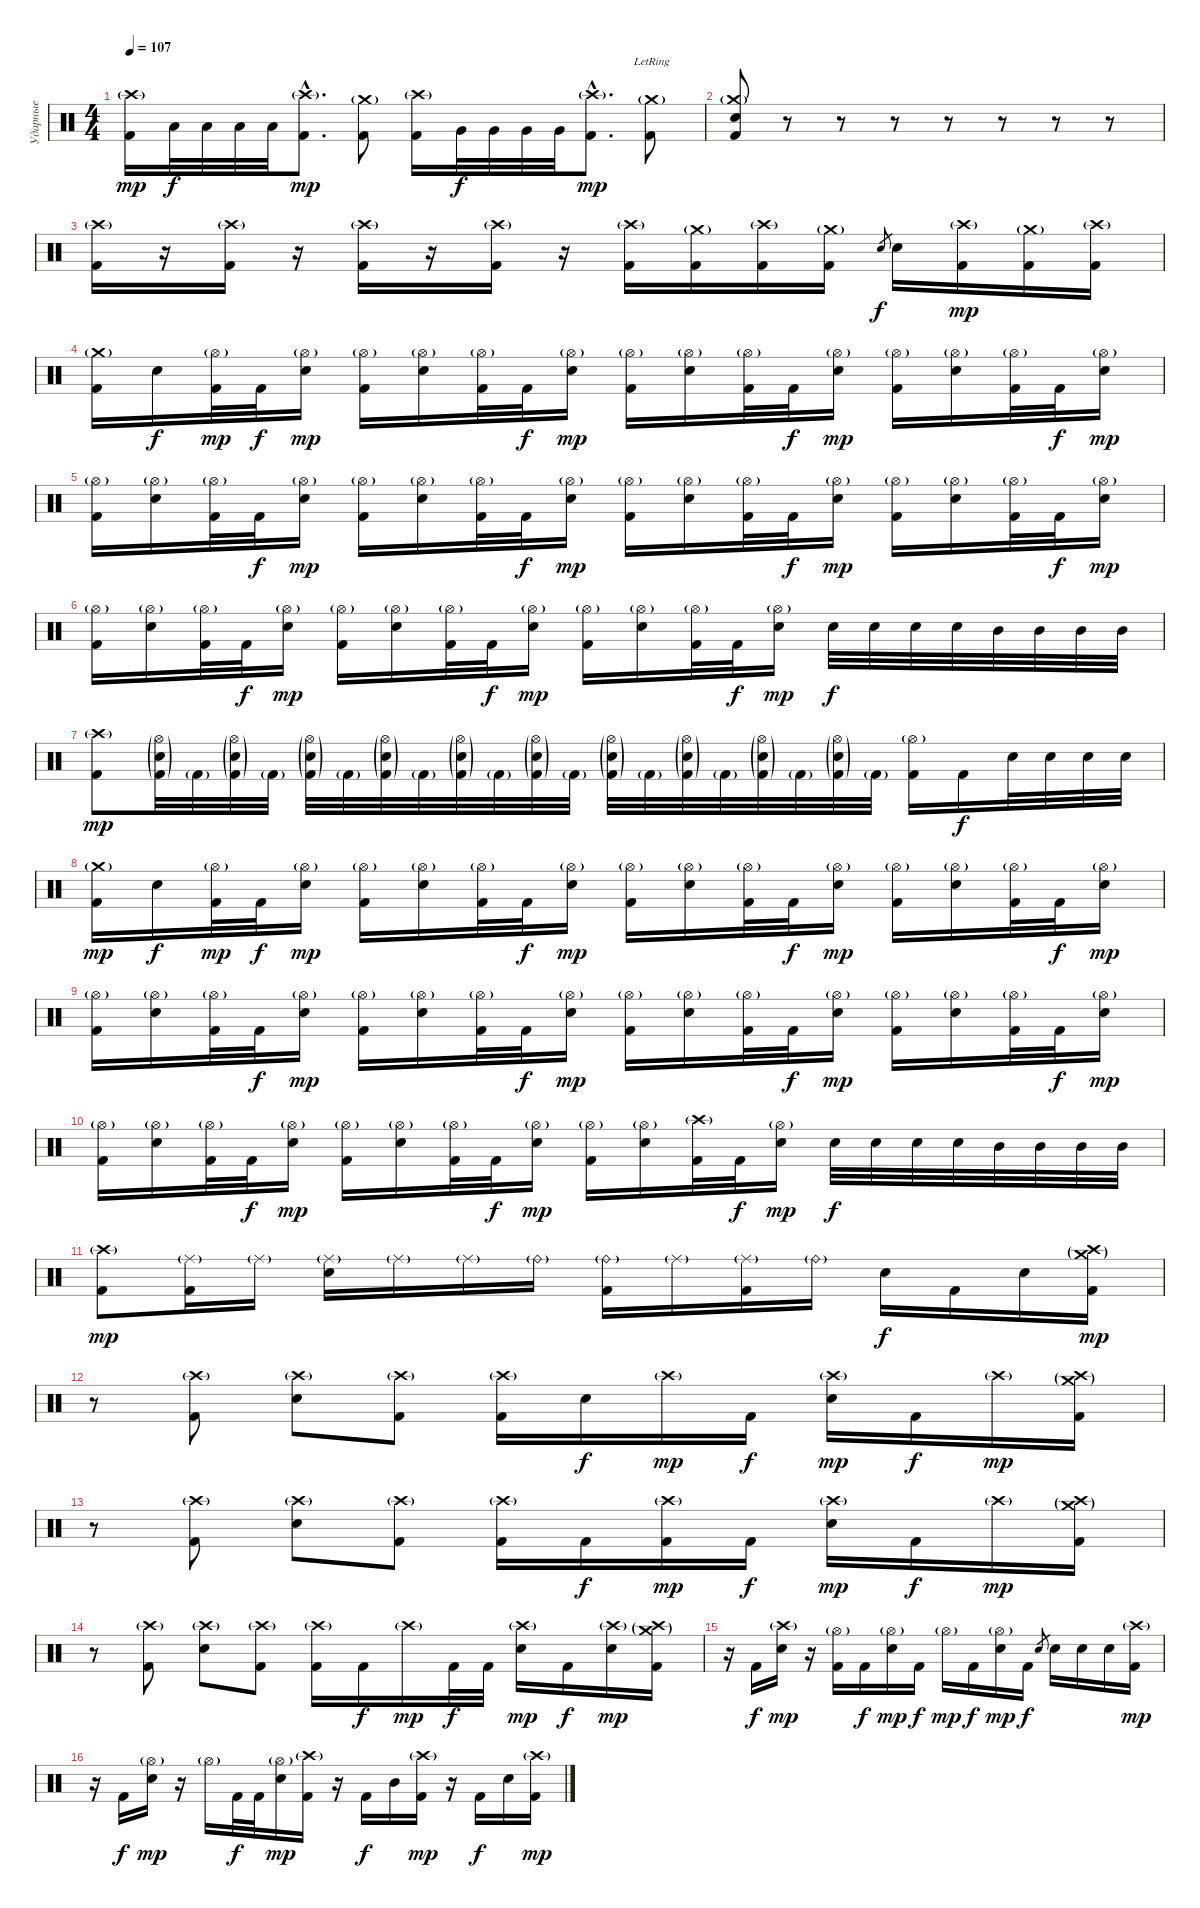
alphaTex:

\track ("Ударные" "Ударные") {instrument percussion}
\staff {score}
\articulation defaults
\ts (4 4)
\tempo 107
\clef neutral
\ks c
("Crash high (hit)"{g} "Kick (hit) 2").16{dy mp} "Low Tom (hit)".32{dy f} "Low Tom (hit)".32 "Low Tom (hit)".32 "Low Tom (hit)".32 ("Crash high (hit)"{g hac} "Kick (hit) 2"{hac}).8{d dy mp} ("Crash medium (hit)"{g} "Kick (hit) 2").8 ("Crash high (hit)"{g} "Kick (hit) 2").16 "Very Low Tom (hit)".32{dy f} "Very Low Tom (hit)".32 "Very Low Tom (hit)".32 "Very Low Tom (hit)".32 ("Crash high (hit)"{g hac} "Kick (hit) 2"{hac}).8{d dy mp} ("Crash medium (hit)"{g lr} "Kick (hit) 2").8 |
("Crash medium (hit)"{g} "Electric Snare (hit)" "Kick (hit) 2").8 r.8 r.8 r.8 r.8 r.8 r.8 r.8 |
("Crash high (hit)"{g} "Kick (hit) 2").16 r.16{volume 0} ("Crash high (hit)"{g} "Kick (hit) 2").16{volume 16} r.16{volume 0} ("Crash high (hit)"{g} "Kick (hit) 2").16{volume 16} r.16{volume 0} ("Crash high (hit)"{g} "Kick (hit) 2").16{volume 16} r.16 ("Crash high (hit)"{g} "Kick (hit) 2").16 ("Crash medium (hit)"{g} "Kick (hit) 2").16 ("Crash high (hit)"{g} "Kick (hit) 2").16 ("Crash medium (hit)"{g} "Kick (hit) 2").16 "Electric Snare (hit)".8{gr dy f} "Electric Snare (hit)".16 ("Crash high (hit)"{g} "Kick (hit) 2").16{dy mp} ("Crash medium (hit)"{g} "Kick (hit) 2").16 ("Crash high (hit)"{g} "Kick (hit) 2").16 |
("Crash medium (hit)"{g} "Kick (hit) 2").16 "Electric Snare (hit)".16{dy f} ("Hi-Hat (open)"{g} "Kick (hit) 2").32{dy mp} "Kick (hit) 2".32{dy f} ("Hi-Hat (open)"{g} "Electric Snare (hit)").16{dy mp} ("Hi-Hat (open)"{g} "Kick (hit) 2").16 ("Hi-Hat (open)"{g} "Electric Snare (hit)").16 ("Hi-Hat (open)"{g} "Kick (hit) 2").32 "Kick (hit) 2".32{dy f} ("Hi-Hat (open)"{g} "Electric Snare (hit)").16{dy mp} ("Hi-Hat (open)"{g} "Kick (hit) 2").16 ("Hi-Hat (open)"{g} "Electric Snare (hit)").16 ("Hi-Hat (open)"{g} "Kick (hit) 2").32 "Kick (hit) 2".32{dy f} ("Hi-Hat (open)"{g} "Electric Snare (hit)").16{dy mp} ("Hi-Hat (open)"{g} "Kick (hit) 2").16 ("Hi-Hat (open)"{g} "Electric Snare (hit)").16 ("Hi-Hat (open)"{g} "Kick (hit) 2").32 "Kick (hit) 2".32{dy f} ("Hi-Hat (open)"{g} "Electric Snare (hit)").16{dy mp} |
("Hi-Hat (open)"{g} "Kick (hit) 2").16 ("Hi-Hat (open)"{g} "Electric Snare (hit)").16 ("Hi-Hat (open)"{g} "Kick (hit) 2").32 "Kick (hit) 2".32{dy f} ("Hi-Hat (open)"{g} "Electric Snare (hit)").16{dy mp} ("Hi-Hat (open)"{g} "Kick (hit) 2").16 ("Hi-Hat (open)"{g} "Electric Snare (hit)").16 ("Hi-Hat (open)"{g} "Kick (hit) 2").32 "Kick (hit) 2".32{dy f} ("Hi-Hat (open)"{g} "Electric Snare (hit)").16{dy mp} ("Hi-Hat (open)"{g} "Kick (hit) 2").16 ("Hi-Hat (open)"{g} "Electric Snare (hit)").16 ("Hi-Hat (open)"{g} "Kick (hit) 2").32 "Kick (hit) 2".32{dy f} ("Hi-Hat (open)"{g} "Electric Snare (hit)").16{dy mp} ("Hi-Hat (open)"{g} "Kick (hit) 2").16 ("Hi-Hat (open)"{g} "Electric Snare (hit)").16 ("Hi-Hat (open)"{g} "Kick (hit) 2").32 "Kick (hit) 2".32{dy f} ("Hi-Hat (open)"{g} "Electric Snare (hit)").16{dy mp} |
("Hi-Hat (open)"{g} "Kick (hit) 2").16 ("Hi-Hat (open)"{g} "Electric Snare (hit)").16 ("Hi-Hat (open)"{g} "Kick (hit) 2").32 "Kick (hit) 2".32{dy f} ("Hi-Hat (open)"{g} "Electric Snare (hit)").16{dy mp} ("Hi-Hat (open)"{g} "Kick (hit) 2").16 ("Hi-Hat (open)"{g} "Electric Snare (hit)").16 ("Hi-Hat (open)"{g} "Kick (hit) 2").32 "Kick (hit) 2".32{dy f} ("Hi-Hat (open)"{g} "Electric Snare (hit)").16{dy mp} ("Hi-Hat (open)"{g} "Kick (hit) 2").16 ("Hi-Hat (open)"{g} "Electric Snare (hit)").16 ("Hi-Hat (open)"{g} "Kick (hit) 2").32 "Kick (hit) 2".32{dy f} ("Hi-Hat (open)"{g} "Electric Snare (hit)").16{dy mp} "Electric Snare (hit)".32{dy f} "Electric Snare (hit)".32 "Electric Snare (hit)".32 "Electric Snare (hit)".32 "Mid Tom (hit)".32 "Mid Tom (hit)".32 "Mid Tom (hit)".32 "Mid Tom (hit)".32 |
("Crash high (hit)"{g} "Kick (hit) 2").8{dy mp} ("Hi-Hat (open)"{g} "Electric Snare (hit)"{g} "Kick (hit) 2"{g}).32 "Kick (hit) 2"{g}.32 ("Hi-Hat (open)"{g} "Electric Snare (hit)"{g} "Kick (hit) 2"{g}).32 "Kick (hit) 2"{g}.32 ("Hi-Hat (open)"{g} "Electric Snare (hit)"{g} "Kick (hit) 2"{g}).32 "Kick (hit) 2"{g}.32 ("Hi-Hat (open)"{g} "Electric Snare (hit)"{g} "Kick (hit) 2"{g}).32 "Kick (hit) 2"{g}.32 ("Hi-Hat (open)"{g} "Electric Snare (hit)"{g} "Kick (hit) 2"{g}).32 "Kick (hit) 2"{g}.32 ("Hi-Hat (open)"{g} "Electric Snare (hit)"{g} "Kick (hit) 2"{g}).32 "Kick (hit) 2"{g}.32 ("Hi-Hat (open)"{g} "Electric Snare (hit)"{g} "Kick (hit) 2"{g}).32 "Kick (hit) 2"{g}.32 ("Hi-Hat (open)"{g} "Electric Snare (hit)"{g} "Kick (hit) 2"{g}).32 "Kick (hit) 2"{g}.32 ("Hi-Hat (open)"{g} "Electric Snare (hit)"{g} "Kick (hit) 2"{g}).32 "Kick (hit) 2"{g}.32 ("Hi-Hat (open)"{g} "Electric Snare (hit)"{g} "Kick (hit) 2"{g}).32 "Kick (hit) 2"{g}.32 ("Hi-Hat (open)"{g} "Kick (hit) 2").16 "Kick (hit) 2".16{dy f} "Electric Snare (hit)".32 "Electric Snare (hit)".32 "Electric Snare (hit)".32 "Electric Snare (hit)".32 |
("Crash medium (hit)"{g} "Kick (hit) 2").16{dy mp} "Electric Snare (hit)".16{dy f} ("Hi-Hat (open)"{g} "Kick (hit) 2").32{dy mp} "Kick (hit) 2".32{dy f} ("Hi-Hat (open)"{g} "Electric Snare (hit)").16{dy mp} ("Hi-Hat (open)"{g} "Kick (hit) 2").16 ("Hi-Hat (open)"{g} "Electric Snare (hit)").16 ("Hi-Hat (open)"{g} "Kick (hit) 2").32 "Kick (hit) 2".32{dy f} ("Hi-Hat (open)"{g} "Electric Snare (hit)").16{dy mp} ("Hi-Hat (open)"{g} "Kick (hit) 2").16 ("Hi-Hat (open)"{g} "Electric Snare (hit)").16 ("Hi-Hat (open)"{g} "Kick (hit) 2").32 "Kick (hit) 2".32{dy f} ("Hi-Hat (open)"{g} "Electric Snare (hit)").16{dy mp} ("Hi-Hat (open)"{g} "Kick (hit) 2").16 ("Hi-Hat (open)"{g} "Electric Snare (hit)").16 ("Hi-Hat (open)"{g} "Kick (hit) 2").32 "Kick (hit) 2".32{dy f} ("Hi-Hat (open)"{g} "Electric Snare (hit)").16{dy mp} |
("Hi-Hat (open)"{g} "Kick (hit) 2").16 ("Hi-Hat (open)"{g} "Electric Snare (hit)").16 ("Hi-Hat (open)"{g} "Kick (hit) 2").32 "Kick (hit) 2".32{dy f} ("Hi-Hat (open)"{g} "Electric Snare (hit)").16{dy mp} ("Hi-Hat (open)"{g} "Kick (hit) 2").16 ("Hi-Hat (open)"{g} "Electric Snare (hit)").16 ("Hi-Hat (open)"{g} "Kick (hit) 2").32 "Kick (hit) 2".32{dy f} ("Hi-Hat (open)"{g} "Electric Snare (hit)").16{dy mp} ("Hi-Hat (open)"{g} "Kick (hit) 2").16 ("Hi-Hat (open)"{g} "Electric Snare (hit)").16 ("Hi-Hat (open)"{g} "Kick (hit) 2").32 "Kick (hit) 2".32{dy f} ("Hi-Hat (open)"{g} "Electric Snare (hit)").16{dy mp} ("Hi-Hat (open)"{g} "Kick (hit) 2").16 ("Hi-Hat (open)"{g} "Electric Snare (hit)").16 ("Hi-Hat (open)"{g} "Kick (hit) 2").32 "Kick (hit) 2".32{dy f} ("Hi-Hat (open)"{g} "Electric Snare (hit)").16{dy mp} |
("Hi-Hat (open)"{g} "Kick (hit) 2").16 ("Hi-Hat (open)"{g} "Electric Snare (hit)").16 ("Hi-Hat (open)"{g} "Kick (hit) 2").32 "Kick (hit) 2".32{dy f} ("Hi-Hat (open)"{g} "Electric Snare (hit)").16{dy mp} ("Hi-Hat (open)"{g} "Kick (hit) 2").16 ("Hi-Hat (open)"{g} "Electric Snare (hit)").16 ("Hi-Hat (open)"{g} "Kick (hit) 2").32 "Kick (hit) 2".32{dy f} ("Hi-Hat (open)"{g} "Electric Snare (hit)").16{dy mp} ("Hi-Hat (open)"{g} "Kick (hit) 2").16 ("Hi-Hat (open)"{g} "Electric Snare (hit)").16 ("Crash high (hit)"{g} "Kick (hit) 2").32 "Kick (hit) 2".32{dy f} ("Hi-Hat (open)"{g} "Electric Snare (hit)").16{dy mp} "Electric Snare (hit)".32{dy f} "Electric Snare (hit)".32 "Electric Snare (hit)".32 "Electric Snare (hit)".32 "Mid Tom (hit)".32 "Mid Tom (hit)".32 "Mid Tom (hit)".32 "Mid Tom (hit)".32 |
("Crash high (hit)"{g} "Kick (hit) 2").8{dy mp} ("Ride (middle)"{g} "Kick (hit) 2").16 "Ride (middle)"{g}.16 ("Ride (middle)"{g} "Electric Snare (hit)").16 "Ride (middle)"{g}.16 "Ride (middle)"{g}.16 "Ride (bell)"{g}.16 ("Ride (bell)"{g} "Kick (hit) 2").16 "Ride (middle)"{g}.16 ("Ride (middle)"{g} "Kick (hit) 2").16 "Ride (bell)"{g}.16 "Electric Snare (hit)".16{dy f} "Kick (hit) 2".16 "Electric Snare (hit)".16 ("Crash high (hit)"{g} "Crash medium (hit)"{g} "Kick (hit) 2").16{dy mp} |
r.8 ("Crash high (hit)"{g} "Kick (hit) 2").8 ("Crash high (hit)"{g} "Electric Snare (hit)").8 ("Crash high (hit)"{g} "Kick (hit) 2").8 ("Crash high (hit)"{g} "Kick (hit) 2").16 "Electric Snare (hit)".16{dy f} "Crash high (hit)"{g}.16{dy mp} "Kick (hit) 2".16{dy f} ("Crash high (hit)"{g} "Electric Snare (hit)").16{dy mp} "Kick (hit) 2".16{dy f} "Crash high (hit)"{g}.16{dy mp} ("Crash high (hit)"{g} "Crash medium (hit)"{g} "Kick (hit) 2").16 |
r.8 ("Crash high (hit)"{g} "Kick (hit) 2").8 ("Crash high (hit)"{g} "Electric Snare (hit)").8 ("Crash high (hit)"{g} "Kick (hit) 2").8 ("Crash high (hit)"{g} "Kick (hit) 2").16 "Kick (hit) 2".16{dy f} ("Crash high (hit)"{g} "Kick (hit) 2").16{dy mp} "Kick (hit) 2".16{dy f} ("Crash high (hit)"{g} "Electric Snare (hit)").16{dy mp} "Kick (hit) 2".16{dy f} "Crash high (hit)"{g}.16{dy mp} ("Crash high (hit)"{g} "Crash medium (hit)"{g} "Kick (hit) 2").16 |
r.8 ("Crash high (hit)"{g} "Kick (hit) 2").8 ("Crash high (hit)"{g} "Electric Snare (hit)").8 ("Crash high (hit)"{g} "Kick (hit) 2").8 ("Crash high (hit)"{g} "Kick (hit) 2").16 "Kick (hit) 2".16{dy f} "Crash high (hit)"{g}.16{dy mp} "Kick (hit) 2".32{dy f} "Kick (hit) 2".32 ("Crash high (hit)"{g} "Electric Snare (hit)").16{dy mp} "Kick (hit) 2".16{dy f} ("Crash high (hit)"{g} "Electric Snare (hit)").16{dy mp} ("Crash medium (hit)"{g} "Crash high (hit)"{g} "Kick (hit) 2").16 |
r.16 "Kick (hit) 2".16{dy f} ("Crash high (hit)"{g} "Electric Snare (hit)").16{dy mp} r.16 ("Hi-Hat (open)"{g} "Kick (hit) 2").16 "Kick (hit) 2".16{dy f} ("Hi-Hat (open)"{g} "Electric Snare (hit)").16{dy mp} "Kick (hit) 2".16{dy f} "Hi-Hat (open)"{g}.16{dy mp} "Kick (hit) 2".16{dy f} ("Hi-Hat (open)"{g} "Electric Snare (hit)").16{dy mp} "Kick (hit) 2".16{dy f} "Electric Snare (hit)".8{gr} "Electric Snare (hit)".16 "Electric Snare (hit)".16 "Electric Snare (hit)".16 ("Crash high (hit)"{g} "Kick (hit) 2").16{dy mp} |
r.16 "Kick (hit) 2".16{dy f} ("Hi-Hat (open)"{g} "Electric Snare (hit)").16{dy mp} r.16 "Hi-Hat (open)"{g}.16 "Kick (hit) 2".32{dy f} "Kick (hit) 2".32 ("Hi-Hat (open)"{g} "Electric Snare (hit)").16{dy mp} ("Crash high (hit)"{g} "Kick (hit) 2").16 r.16 "Kick (hit) 2".16{dy f} "Mid Tom (hit)".16 ("Crash high (hit)"{g} "Kick (hit) 2").16{dy mp} r.16 "Kick (hit) 2".16{dy f} "Electric Snare (hit)".16 ("Crash high (hit)"{g} "Kick (hit) 2").16{dy mp}
